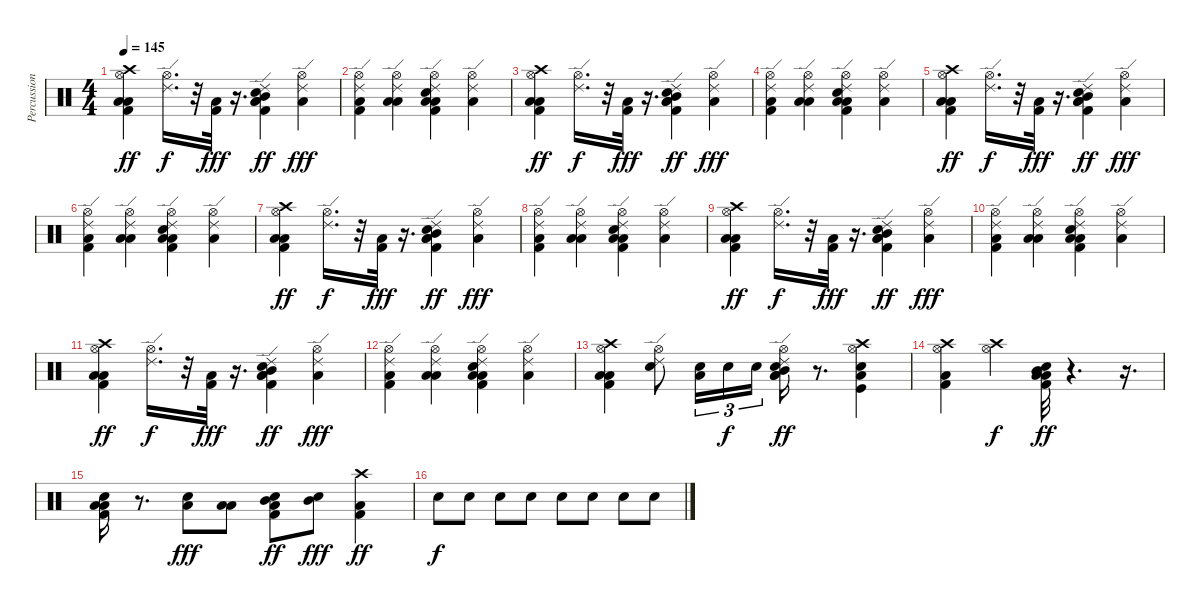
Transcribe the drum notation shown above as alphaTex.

\track ("Percussion" "Percussion") {instrument percussion}
\staff {score}
\articulation defaults
\ts (4 4)
\tempo 145
\clef neutral
\ks c
("Crash high (hit)" "Hi-Hat (open)" "Low Tom (hit)" "Low Floor Tom (hit)" "Kick (hit) 2").4{dy ff} ("Ride (edge) 2" "Hi-Hat (open)").16{d dy f} r.32 ("Low Floor Tom (hit)" "Kick (hit) 2").32{dy fff} r.16{d} ("Ride (edge) 2" "Mid Tom (hit)" "Low Tom (hit)" "Snare (hit) 2" "Low Floor Tom (hit)" "Kick (hit) 2").4{dy ff} ("Ride (edge) 2" "Hi-Hat (open)" "Low Floor Tom (hit)").4{dy fff} |
("Ride (edge) 2" "Hi-Hat (open)" "Low Floor Tom (hit)" "Kick (hit) 2").4 ("Ride (edge) 2" "Hi-Hat (open)" "Low Tom (hit)" "Low Floor Tom (hit)").4 ("Ride (edge) 2" "Hi-Hat (open)" "Snare (hit) 2" "Low Tom (hit)" "Low Floor Tom (hit)" "Kick (hit) 2").4 ("Ride (edge) 2" "Hi-Hat (open)" "Low Floor Tom (hit)").4 |
("Crash high (hit)" "Hi-Hat (open)" "Low Tom (hit)" "Low Floor Tom (hit)" "Kick (hit) 2").4{dy ff} ("Ride (edge) 2" "Hi-Hat (open)").16{d dy f} r.32 ("Low Floor Tom (hit)" "Kick (hit) 2").32{dy fff} r.16{d} ("Ride (edge) 2" "Mid Tom (hit)" "Low Tom (hit)" "Snare (hit) 2" "Low Floor Tom (hit)" "Kick (hit) 2").4{dy ff} ("Ride (edge) 2" "Hi-Hat (open)" "Low Floor Tom (hit)").4{dy fff} |
("Ride (edge) 2" "Hi-Hat (open)" "Low Floor Tom (hit)" "Kick (hit) 2").4 ("Ride (edge) 2" "Hi-Hat (open)" "Low Tom (hit)" "Low Floor Tom (hit)").4 ("Ride (edge) 2" "Hi-Hat (open)" "Snare (hit) 2" "Low Tom (hit)" "Low Floor Tom (hit)" "Kick (hit) 2").4 ("Ride (edge) 2" "Hi-Hat (open)" "Low Floor Tom (hit)").4 |
("Crash high (hit)" "Hi-Hat (open)" "Low Tom (hit)" "Low Floor Tom (hit)" "Kick (hit) 2").4{dy ff} ("Ride (edge) 2" "Hi-Hat (open)").16{d dy f} r.32 ("Low Floor Tom (hit)" "Kick (hit) 2").32{dy fff} r.16{d} ("Ride (edge) 2" "Mid Tom (hit)" "Low Tom (hit)" "Snare (hit) 2" "Low Floor Tom (hit)" "Kick (hit) 2").4{dy ff} ("Ride (edge) 2" "Hi-Hat (open)" "Low Floor Tom (hit)").4{dy fff} |
("Ride (edge) 2" "Hi-Hat (open)" "Low Floor Tom (hit)" "Kick (hit) 2").4 ("Ride (edge) 2" "Hi-Hat (open)" "Low Tom (hit)" "Low Floor Tom (hit)").4 ("Ride (edge) 2" "Hi-Hat (open)" "Snare (hit) 2" "Low Tom (hit)" "Low Floor Tom (hit)" "Kick (hit) 2").4 ("Ride (edge) 2" "Hi-Hat (open)" "Low Floor Tom (hit)").4 |
("Crash high (hit)" "Hi-Hat (open)" "Low Tom (hit)" "Low Floor Tom (hit)" "Kick (hit) 2").4{dy ff} ("Ride (edge) 2" "Hi-Hat (open)").16{d dy f} r.32 ("Low Floor Tom (hit)" "Kick (hit) 2").32{dy fff} r.16{d} ("Ride (edge) 2" "Mid Tom (hit)" "Low Tom (hit)" "Snare (hit) 2" "Low Floor Tom (hit)" "Kick (hit) 2").4{dy ff} ("Ride (edge) 2" "Hi-Hat (open)" "Low Floor Tom (hit)").4{dy fff} |
("Ride (edge) 2" "Hi-Hat (open)" "Low Floor Tom (hit)" "Kick (hit) 2").4 ("Ride (edge) 2" "Hi-Hat (open)" "Low Tom (hit)" "Low Floor Tom (hit)").4 ("Ride (edge) 2" "Hi-Hat (open)" "Snare (hit) 2" "Low Tom (hit)" "Low Floor Tom (hit)" "Kick (hit) 2").4 ("Ride (edge) 2" "Hi-Hat (open)" "Low Floor Tom (hit)").4 |
("Crash high (hit)" "Hi-Hat (open)" "Low Tom (hit)" "Low Floor Tom (hit)" "Kick (hit) 2").4{dy ff} ("Ride (edge) 2" "Hi-Hat (open)").16{d dy f} r.32 ("Low Floor Tom (hit)" "Kick (hit) 2").32{dy fff} r.16{d} ("Ride (edge) 2" "Mid Tom (hit)" "Low Tom (hit)" "Snare (hit) 2" "Low Floor Tom (hit)" "Kick (hit) 2").4{dy ff} ("Ride (edge) 2" "Hi-Hat (open)" "Low Floor Tom (hit)").4{dy fff} |
("Ride (edge) 2" "Hi-Hat (open)" "Low Floor Tom (hit)" "Kick (hit) 2").4 ("Ride (edge) 2" "Hi-Hat (open)" "Low Tom (hit)" "Low Floor Tom (hit)").4 ("Ride (edge) 2" "Hi-Hat (open)" "Snare (hit) 2" "Low Tom (hit)" "Low Floor Tom (hit)" "Kick (hit) 2").4 ("Ride (edge) 2" "Hi-Hat (open)" "Low Floor Tom (hit)").4 |
("Crash high (hit)" "Hi-Hat (open)" "Low Tom (hit)" "Low Floor Tom (hit)" "Kick (hit) 2").4{dy ff} ("Ride (edge) 2" "Hi-Hat (open)").16{d dy f} r.32 ("Low Floor Tom (hit)" "Kick (hit) 2").32{dy fff} r.16{d} ("Ride (edge) 2" "Mid Tom (hit)" "Low Tom (hit)" "Snare (hit) 2" "Low Floor Tom (hit)" "Kick (hit) 2").4{dy ff} ("Ride (edge) 2" "Hi-Hat (open)" "Low Floor Tom (hit)").4{dy fff} |
("Ride (edge) 2" "Hi-Hat (open)" "Low Floor Tom (hit)" "Kick (hit) 2").4 ("Ride (edge) 2" "Hi-Hat (open)" "Low Tom (hit)" "Low Floor Tom (hit)").4 ("Ride (edge) 2" "Hi-Hat (open)" "Snare (hit) 2" "Low Tom (hit)" "Low Floor Tom (hit)" "Kick (hit) 2").4 ("Ride (edge) 2" "Hi-Hat (open)" "Low Floor Tom (hit)").4 |
("Crash high (hit)" "Hi-Hat (open)" "Low Tom (hit)" "Low Floor Tom (hit)" "Kick (hit) 2").4 ("Ride (edge) 2" "Hi-Hat (open)" "Snare (hit) 2").8 ("Snare (hit) 2" "Low Floor Tom (hit)").16{tu (3 2)} "Snare (hit) 2".16{tu (3 2) dy f} "Snare (hit) 2".16{tu (3 2)} ("Ride (edge) 2" "Mid Tom (hit)" "Low Tom (hit)" "Snare (hit) 2" "Low Floor Tom (hit)" "Hi-Hat (open)").16{dy ff} r.8{d} ("Crash high (hit)" "Hi-Hat (open)" "Snare (hit) 2" "Low Floor Tom (hit)" "Kick (hit)").4 |
("Crash high (hit)" "Hi-Hat (open)" "Low Floor Tom (hit)" "Kick (hit) 2").4 ("Crash high (hit)" "Hi-Hat (open)").4{dy f} ("Mid Tom (hit)" "Snare (hit) 2" "Low Tom (hit)" "Low Floor Tom (hit)" "Kick (hit) 2").32{dy ff} r.4{d} r.16{d} |
("Low Tom (hit)" "Snare (hit) 2" "Low Floor Tom (hit)" "Kick (hit) 2").16 r.8{d} ("Snare (hit) 2" "Low Tom (hit)").8{dy fff} ("Low Tom (hit)" "Low Floor Tom (hit)").8 ("Mid Tom (hit)" "Snare (hit) 2" "Low Floor Tom (hit)" "Kick (hit) 2").8{dy ff} ("Mid Tom (hit)" "Snare (hit) 2").8{dy fff} ("Crash high (hit)" "Low Floor Tom (hit)" "Kick (hit) 2").4{dy ff} |
"Snare (hit) 2".8{dy f} "Snare (hit) 2".8 "Snare (hit) 2".8 "Snare (hit) 2".8 "Snare (hit) 2".8 "Snare (hit) 2".8 "Snare (hit) 2".8 "Snare (hit) 2".8
